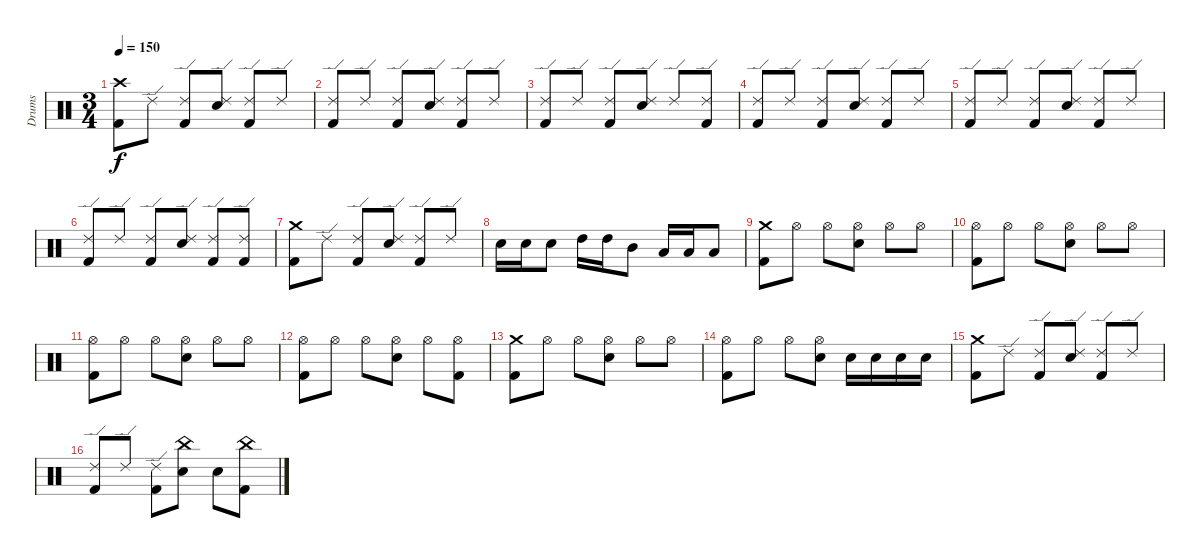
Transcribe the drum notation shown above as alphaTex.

\track ("Drums" "Drums") {instrument percussion}
\staff {score}
\articulation defaults
\ts (3 4)
\tempo 150
\clef neutral
\ks c
("Crash high (hit)" "Kick (hit) 2").8{dy f} "Ride (edge) 2".8 ("Ride (edge) 2" "Kick (hit) 2").8 ("Ride (edge) 2" "Snare (hit) 2").8 ("Ride (edge) 2" "Kick (hit) 2").8 "Ride (edge) 2".8 |
("Ride (edge) 2" "Kick (hit) 2").8 "Ride (edge) 2".8 ("Ride (edge) 2" "Kick (hit) 2").8 ("Ride (edge) 2" "Snare (hit) 2").8 ("Ride (edge) 2" "Kick (hit) 2").8 "Ride (edge) 2".8 |
("Ride (edge) 2" "Kick (hit) 2").8 "Ride (edge) 2".8 ("Ride (edge) 2" "Kick (hit) 2").8 ("Ride (edge) 2" "Snare (hit) 2").8 "Ride (edge) 2".8 ("Ride (edge) 2" "Kick (hit) 2").8 |
("Ride (edge) 2" "Kick (hit) 2").8 "Ride (edge) 2".8 ("Ride (edge) 2" "Kick (hit) 2").8 ("Ride (edge) 2" "Snare (hit) 2").8 ("Ride (edge) 2" "Kick (hit) 2").8 "Ride (edge) 2".8 |
("Ride (edge) 2" "Kick (hit) 2").8 "Ride (edge) 2".8 ("Ride (edge) 2" "Kick (hit) 2").8 ("Ride (edge) 2" "Snare (hit) 2").8 ("Ride (edge) 2" "Kick (hit) 2").8 "Ride (edge) 2".8 |
("Ride (edge) 2" "Kick (hit) 2").8 "Ride (edge) 2".8 ("Ride (edge) 2" "Kick (hit) 2").8 ("Ride (edge) 2" "Snare (hit) 2").8 ("Ride (edge) 2" "Kick (hit) 2").8 ("Ride (edge) 2" "Kick (hit) 2").8 |
("Crash medium (hit)" "Kick (hit) 2").8 "Ride (edge) 2".8 ("Ride (edge) 2" "Kick (hit) 2").8 ("Ride (edge) 2" "Snare (hit) 2").8 ("Ride (edge) 2" "Kick (hit) 2").8 "Ride (edge) 2".8 |
"Snare (hit) 2".16 "Snare (hit) 2".16 "Snare (hit) 2".8 "High Tom (hit)".16 "High Tom (hit)".16 "Mid Tom (hit)".8 "Low Tom (hit)".16 "Low Tom (hit)".16 "Low Tom (hit)".8 |
("Crash medium (hit)" "Kick (hit) 2").8 "Hi-Hat (open)".8 "Hi-Hat (open)".8 ("Hi-Hat (open)" "Snare (hit) 2").8 "Hi-Hat (open)".8 "Hi-Hat (open)".8 |
("Hi-Hat (open)" "Kick (hit) 2").8 "Hi-Hat (open)".8 "Hi-Hat (open)".8 ("Hi-Hat (open)" "Snare (hit) 2").8 "Hi-Hat (open)".8 "Hi-Hat (open)".8 |
("Hi-Hat (open)" "Kick (hit) 2").8 "Hi-Hat (open)".8 "Hi-Hat (open)".8 ("Hi-Hat (open)" "Snare (hit) 2").8 "Hi-Hat (open)".8 "Hi-Hat (open)".8 |
("Hi-Hat (open)" "Kick (hit) 2").8 "Hi-Hat (open)".8 "Hi-Hat (open)".8 ("Hi-Hat (open)" "Snare (hit) 2").8 "Hi-Hat (open)".8 ("Hi-Hat (open)" "Kick (hit) 2").8 |
("Crash medium (hit)" "Kick (hit) 2").8 "Hi-Hat (open)".8 "Hi-Hat (open)".8 ("Hi-Hat (open)" "Snare (hit) 2").8 "Hi-Hat (open)".8 "Hi-Hat (open)".8 |
("Hi-Hat (open)" "Kick (hit) 2").8 "Hi-Hat (open)".8 "Hi-Hat (open)".8 ("Hi-Hat (open)" "Snare (hit) 2").8 "Snare (hit) 2".16 "Snare (hit) 2".16 "Snare (hit) 2".16 "Snare (hit) 2".16 |
("Crash medium (hit)" "Kick (hit) 2").8 "Ride (edge) 2".8 ("Ride (edge) 2" "Kick (hit) 2").8 ("Ride (edge) 2" "Snare (hit) 2").8 ("Ride (edge) 2" "Kick (hit) 2").8 "Ride (edge) 2".8 |
("Ride (edge) 2" "Kick (hit) 2").8 "Ride (edge) 2".8 ("Ride (edge) 2" "Kick (hit) 2").8 ("China (hit)" "Snare (hit) 2").8 "Snare (hit) 2".8 ("China (hit)" "Kick (hit) 2").8
